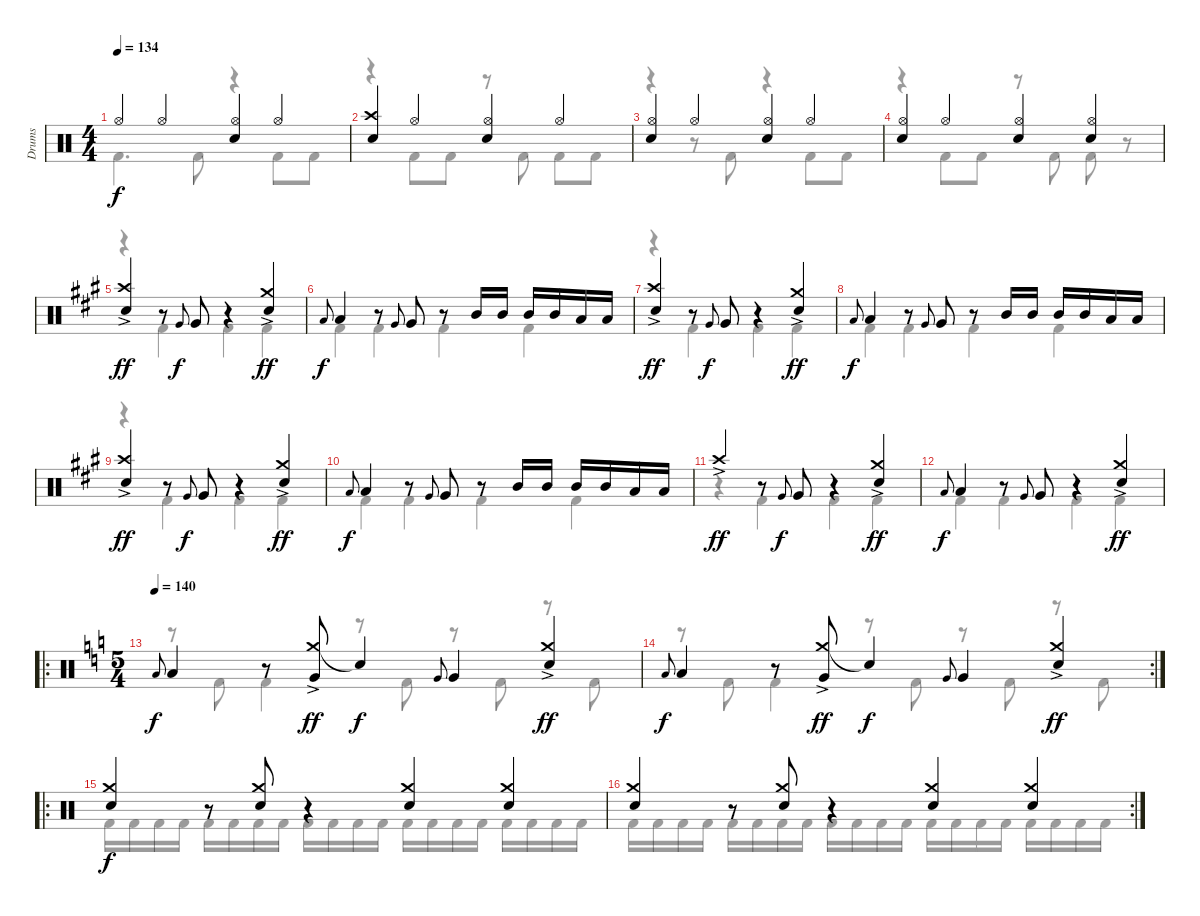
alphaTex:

\track ("Drums" "Drums") {instrument percussion}
\staff {score}
\articulation defaults
\voice
\ts (4 4)
\tempo 134
\clef neutral
\ks c "Hi-Hat (open)".4{dy f} "Hi-Hat (open)".4
("Hi-Hat (open)" "Electric Snare (hit)").4 "Hi-Hat (open)".4 |
("Crash high (hit)" "Electric Snare (hit)").4 "Hi-Hat (open)".4 ("Hi-Hat (open)" "Electric Snare (hit)").4 "Hi-Hat (open)".4 |
("Hi-Hat (open)" "Electric Snare (hit)").4 "Hi-Hat (open)".4 ("Hi-Hat (open)" "Electric Snare (hit)").4 "Hi-Hat (open)".4 |
("Hi-Hat (open)" "Electric Snare (hit)").4 "Hi-Hat (open)".4 ("Hi-Hat (open)" "Electric Snare (hit)").4 ("Hi-Hat (open)" "Electric Snare (hit)").4 |
\ks a
("Crash high (hit)"{ac} "Electric Snare (hit)").4{dy ff} r.8 "Very Low Tom (hit)".8{gr onbeat dy f} "Very Low Tom (hit)".8 r.4 ("Crash medium (hit)"{ac} "Electric Snare (hit)").4{dy ff} |
"Low Tom (hit)".8{gr onbeat dy f} "Low Tom (hit)".4 r.8 "Very Low Tom (hit)".8{gr onbeat} "Very Low Tom (hit)".8 r.8 "Mid Tom (hit)".16 "Mid Tom (hit)".16 "Mid Tom (hit)".16 "Mid Tom (hit)".16 "Low Tom (hit)".16 "Low Tom (hit)".16 |
("Crash high (hit)"{ac} "Electric Snare (hit)").4{dy ff} r.8 "Very Low Tom (hit)".8{gr onbeat dy f} "Very Low Tom (hit)".8 r.4 ("Crash medium (hit)"{ac} "Electric Snare (hit)").4{dy ff} |
"Low Tom (hit)".8{gr onbeat dy f} "Low Tom (hit)".4 r.8 "Very Low Tom (hit)".8{gr onbeat} "Very Low Tom (hit)".8 r.8 "Mid Tom (hit)".16 "Mid Tom (hit)".16 "Mid Tom (hit)".16 "Mid Tom (hit)".16 "Low Tom (hit)".16 "Low Tom (hit)".16 |
("Crash high (hit)"{ac} "Electric Snare (hit)").4{dy ff} r.8 "Very Low Tom (hit)".8{gr onbeat dy f} "Very Low Tom (hit)".8 r.4 ("Crash medium (hit)"{ac} "Electric Snare (hit)").4{dy ff} |
"Low Tom (hit)".8{gr onbeat dy f} "Low Tom (hit)".4 r.8 "Very Low Tom (hit)".8{gr onbeat} "Very Low Tom (hit)".8 r.8 "Mid Tom (hit)".16 "Mid Tom (hit)".16 "Mid Tom (hit)".16 "Mid Tom (hit)".16 "Low Tom (hit)".16 "Low Tom (hit)".16 |
"Crash high (hit)"{ac}.4{dy ff} r.8 "Very Low Tom (hit)".8{gr onbeat dy f} "Very Low Tom (hit)".8 r.4 ("Crash medium (hit)"{ac} "Electric Snare (hit)").4{dy ff} |
"Low Tom (hit)".8{gr onbeat dy f} "Low Tom (hit)".4 r.8 "Very Low Tom (hit)".8{gr onbeat} "Very Low Tom (hit)".8 r.4 ("Crash medium (hit)"{ac} "Electric Snare (hit)").4{dy ff} |
\ro
\ts (5 4)
\tempo 140
\ks c "Low Tom (hit)".8{gr onbeat dy f} "Low Tom (hit)".4
r.8 ("Crash medium (hit)"{ac} "Very Low Tom (hit)").8{dy ff} "Snare (hit)"{t}.4{dy f} "Very Low Tom (hit)".8{gr onbeat} "Very Low Tom (hit)".4 ("Crash medium (hit)"{ac} "Electric Snare (hit)").4{dy ff} |
\rc 2 "Low Tom (hit)".8{gr onbeat dy f} "Low Tom (hit)".4
r.8 ("Crash medium (hit)"{ac} "Very Low Tom (hit)").8{dy ff} "Snare (hit)"{t}.4{dy f} "Very Low Tom (hit)".8{gr onbeat} "Very Low Tom (hit)".4 ("Crash medium (hit)"{ac} "Electric Snare (hit)").4{dy ff} |
\ro
("Crash medium (hit)" "Electric Snare (hit)").4{dy f} r.8 ("Crash medium (hit)" "Electric Snare (hit)").8 r.4 ("Crash medium (hit)" "Electric Snare (hit)").4 ("Crash medium (hit)" "Electric Snare (hit)").4 |
\rc 2
("Crash medium (hit)" "Electric Snare (hit)").4 r.8 ("Crash medium (hit)" "Electric Snare (hit)").8 r.4 ("Crash medium (hit)" "Electric Snare (hit)").4 ("Crash medium (hit)" "Electric Snare (hit)").4
\voice
\clef neutral
\ottava regular
\simile none
\ks c "Kick (hit) 2".4{d dy f} "Kick (hit) 2".8
r.4 "Kick (hit) 2".8 "Kick (hit) 2".8 |
r.4 "Kick (hit) 2".8 "Kick (hit) 2".8 r.8 "Kick (hit) 2".8 "Kick (hit) 2".8 "Kick (hit) 2".8 |
r.4 r.8 "Kick (hit) 2".8 r.4 "Kick (hit) 2".8 "Kick (hit) 2".8 |
r.4 "Kick (hit) 2".8 "Kick (hit) 2".8 r.8 "Kick (hit) 2".8 "Kick (hit) 2".8 r.8 |
\ks a
r.4 "Kick (hit) 2".4 "Kick (hit) 2".4 "Kick (hit) 2".4 |
"Kick (hit) 2".4 "Kick (hit) 2".4 "Kick (hit) 2".4 "Kick (hit) 2".4 |
r.4 "Kick (hit) 2".4 "Kick (hit) 2".4 "Kick (hit) 2".4 |
"Kick (hit) 2".4 "Kick (hit) 2".4 "Kick (hit) 2".4 "Kick (hit) 2".4 |
r.4 "Kick (hit) 2".4 "Kick (hit) 2".4 "Kick (hit) 2".4 |
"Kick (hit) 2".4 "Kick (hit) 2".4 "Kick (hit) 2".4 "Kick (hit) 2".4 |
r.4 "Kick (hit) 2".4 "Kick (hit) 2".4 "Kick (hit) 2".4 |
"Kick (hit) 2".4 "Kick (hit) 2".4 "Kick (hit) 2".4 "Kick (hit) 2".4 |
\ks c
r.8 "Kick (hit) 2".8 "Kick (hit) 2".4 r.8 "Kick (hit) 2".8 r.8 "Kick (hit) 2".8 r.8 "Kick (hit) 2".8 |
r.8 "Kick (hit) 2".8 "Kick (hit) 2".4 r.8 "Kick (hit) 2".8 r.8 "Kick (hit) 2".8 r.8 "Kick (hit) 2".8 |
"Kick (hit) 2".16 "Kick (hit) 2".16 "Kick (hit) 2".16 "Kick (hit) 2".16 "Kick (hit) 2".16 "Kick (hit) 2".16 "Kick (hit) 2".16 "Kick (hit) 2".16 "Kick (hit) 2".16 "Kick (hit) 2".16 "Kick (hit) 2".16 "Kick (hit) 2".16 "Kick (hit) 2".16 "Kick (hit) 2".16 "Kick (hit) 2".16 "Kick (hit) 2".16 "Kick (hit) 2".16 "Kick (hit) 2".16 "Kick (hit) 2".16 "Kick (hit) 2".16 |
"Kick (hit) 2".16 "Kick (hit) 2".16 "Kick (hit) 2".16 "Kick (hit) 2".16 "Kick (hit) 2".16 "Kick (hit) 2".16 "Kick (hit) 2".16 "Kick (hit) 2".16 "Kick (hit) 2".16 "Kick (hit) 2".16 "Kick (hit) 2".16 "Kick (hit) 2".16 "Kick (hit) 2".16 "Kick (hit) 2".16 "Kick (hit) 2".16 "Kick (hit) 2".16 "Kick (hit) 2".16 "Kick (hit) 2".16 "Kick (hit) 2".16 "Kick (hit) 2".16
